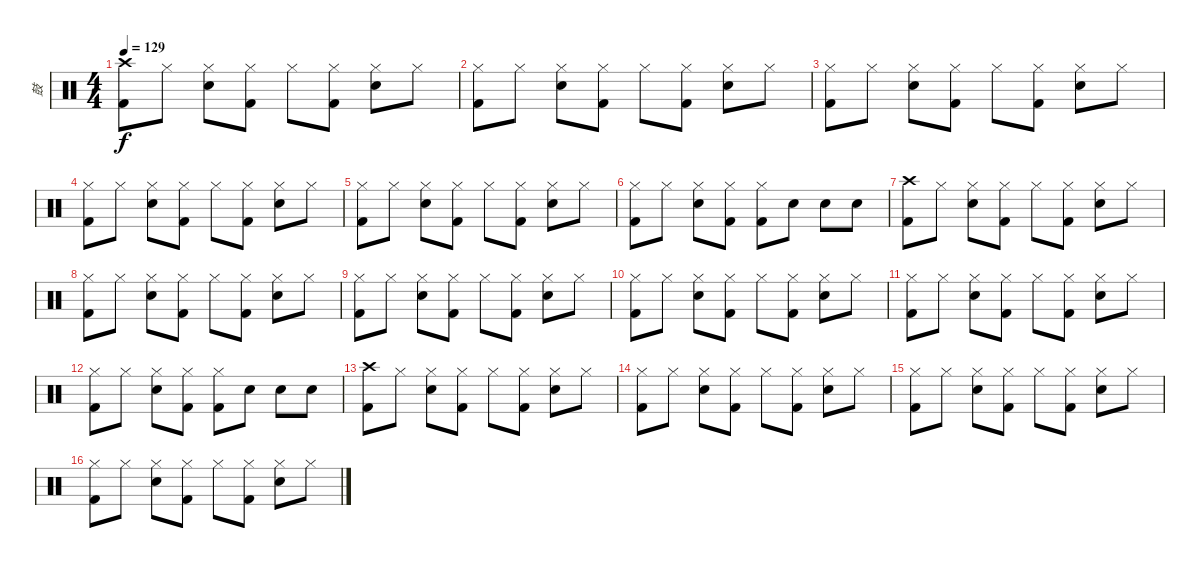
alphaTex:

\track ("鼓" "鼓") {instrument percussion}
\staff {score}
\articulation defaults
\ts (4 4)
\tempo 129
\clef neutral
\ks c
("Crash high (hit)" "Kick (hit) 2").8{dy f} "Hi-Hat (closed)".8 ("Hi-Hat (closed)" "Snare (hit) 2").8 ("Hi-Hat (closed)" "Kick (hit) 2").8 "Hi-Hat (closed)".8 ("Hi-Hat (closed)" "Kick (hit) 2").8 ("Hi-Hat (closed)" "Snare (hit) 2").8 "Hi-Hat (closed)".8 |
("Hi-Hat (closed)" "Kick (hit) 2").8 "Hi-Hat (closed)".8 ("Hi-Hat (closed)" "Snare (hit) 2").8 ("Hi-Hat (closed)" "Kick (hit) 2").8 "Hi-Hat (closed)".8 ("Hi-Hat (closed)" "Kick (hit) 2").8 ("Hi-Hat (closed)" "Snare (hit) 2").8 "Hi-Hat (closed)".8 |
("Hi-Hat (closed)" "Kick (hit) 2").8 "Hi-Hat (closed)".8 ("Hi-Hat (closed)" "Snare (hit) 2").8 ("Hi-Hat (closed)" "Kick (hit) 2").8 "Hi-Hat (closed)".8 ("Hi-Hat (closed)" "Kick (hit) 2").8 ("Hi-Hat (closed)" "Snare (hit) 2").8 "Hi-Hat (closed)".8 |
("Hi-Hat (closed)" "Kick (hit) 2").8 "Hi-Hat (closed)".8 ("Hi-Hat (closed)" "Snare (hit) 2").8 ("Hi-Hat (closed)" "Kick (hit) 2").8 "Hi-Hat (closed)".8 ("Hi-Hat (closed)" "Kick (hit) 2").8 ("Hi-Hat (closed)" "Snare (hit) 2").8 "Hi-Hat (closed)".8 |
("Hi-Hat (closed)" "Kick (hit) 2").8 "Hi-Hat (closed)".8 ("Hi-Hat (closed)" "Snare (hit) 2").8 ("Hi-Hat (closed)" "Kick (hit) 2").8 "Hi-Hat (closed)".8 ("Hi-Hat (closed)" "Kick (hit) 2").8 ("Hi-Hat (closed)" "Snare (hit) 2").8 "Hi-Hat (closed)".8 |
("Hi-Hat (closed)" "Kick (hit) 2").8 "Hi-Hat (closed)".8 ("Hi-Hat (closed)" "Snare (hit) 2").8 ("Hi-Hat (closed)" "Kick (hit) 2").8 ("Hi-Hat (closed)" "Kick (hit) 2").8 "Snare (hit) 2".8 "Snare (hit) 2".8 "Snare (hit) 2".8 |
("Crash high (hit)" "Kick (hit) 2").8 "Hi-Hat (closed)".8 ("Hi-Hat (closed)" "Snare (hit) 2").8 ("Hi-Hat (closed)" "Kick (hit) 2").8 "Hi-Hat (closed)".8 ("Hi-Hat (closed)" "Kick (hit) 2").8 ("Hi-Hat (closed)" "Snare (hit) 2").8 "Hi-Hat (closed)".8 |
("Hi-Hat (closed)" "Kick (hit) 2").8 "Hi-Hat (closed)".8 ("Hi-Hat (closed)" "Snare (hit) 2").8 ("Hi-Hat (closed)" "Kick (hit) 2").8 "Hi-Hat (closed)".8 ("Hi-Hat (closed)" "Kick (hit) 2").8 ("Hi-Hat (closed)" "Snare (hit) 2").8 "Hi-Hat (closed)".8 |
("Hi-Hat (closed)" "Kick (hit) 2").8 "Hi-Hat (closed)".8 ("Hi-Hat (closed)" "Snare (hit) 2").8 ("Hi-Hat (closed)" "Kick (hit) 2").8 "Hi-Hat (closed)".8 ("Hi-Hat (closed)" "Kick (hit) 2").8 ("Hi-Hat (closed)" "Snare (hit) 2").8 "Hi-Hat (closed)".8 |
("Hi-Hat (closed)" "Kick (hit) 2").8 "Hi-Hat (closed)".8 ("Hi-Hat (closed)" "Snare (hit) 2").8 ("Hi-Hat (closed)" "Kick (hit) 2").8 "Hi-Hat (closed)".8 ("Hi-Hat (closed)" "Kick (hit) 2").8 ("Hi-Hat (closed)" "Snare (hit) 2").8 "Hi-Hat (closed)".8 |
("Hi-Hat (closed)" "Kick (hit) 2").8 "Hi-Hat (closed)".8 ("Hi-Hat (closed)" "Snare (hit) 2").8 ("Hi-Hat (closed)" "Kick (hit) 2").8 "Hi-Hat (closed)".8 ("Hi-Hat (closed)" "Kick (hit) 2").8 ("Hi-Hat (closed)" "Snare (hit) 2").8 "Hi-Hat (closed)".8 |
("Hi-Hat (closed)" "Kick (hit) 2").8 "Hi-Hat (closed)".8 ("Hi-Hat (closed)" "Snare (hit) 2").8 ("Hi-Hat (closed)" "Kick (hit) 2").8 ("Hi-Hat (closed)" "Kick (hit) 2").8 "Snare (hit) 2".8 "Snare (hit) 2".8 "Snare (hit) 2".8 |
("Crash high (hit)" "Kick (hit) 2").8 "Hi-Hat (closed)".8 ("Hi-Hat (closed)" "Snare (hit) 2").8 ("Hi-Hat (closed)" "Kick (hit) 2").8 "Hi-Hat (closed)".8 ("Hi-Hat (closed)" "Kick (hit) 2").8 ("Hi-Hat (closed)" "Snare (hit) 2").8 "Hi-Hat (closed)".8 |
("Hi-Hat (closed)" "Kick (hit) 2").8 "Hi-Hat (closed)".8 ("Hi-Hat (closed)" "Snare (hit) 2").8 ("Hi-Hat (closed)" "Kick (hit) 2").8 "Hi-Hat (closed)".8 ("Hi-Hat (closed)" "Kick (hit) 2").8 ("Hi-Hat (closed)" "Snare (hit) 2").8 "Hi-Hat (closed)".8 |
("Hi-Hat (closed)" "Kick (hit) 2").8 "Hi-Hat (closed)".8 ("Hi-Hat (closed)" "Snare (hit) 2").8 ("Hi-Hat (closed)" "Kick (hit) 2").8 "Hi-Hat (closed)".8 ("Hi-Hat (closed)" "Kick (hit) 2").8 ("Hi-Hat (closed)" "Snare (hit) 2").8 "Hi-Hat (closed)".8 |
("Hi-Hat (closed)" "Kick (hit) 2").8 "Hi-Hat (closed)".8 ("Hi-Hat (closed)" "Snare (hit) 2").8 ("Hi-Hat (closed)" "Kick (hit) 2").8 "Hi-Hat (closed)".8 ("Hi-Hat (closed)" "Kick (hit) 2").8 ("Hi-Hat (closed)" "Snare (hit) 2").8 "Hi-Hat (closed)".8
